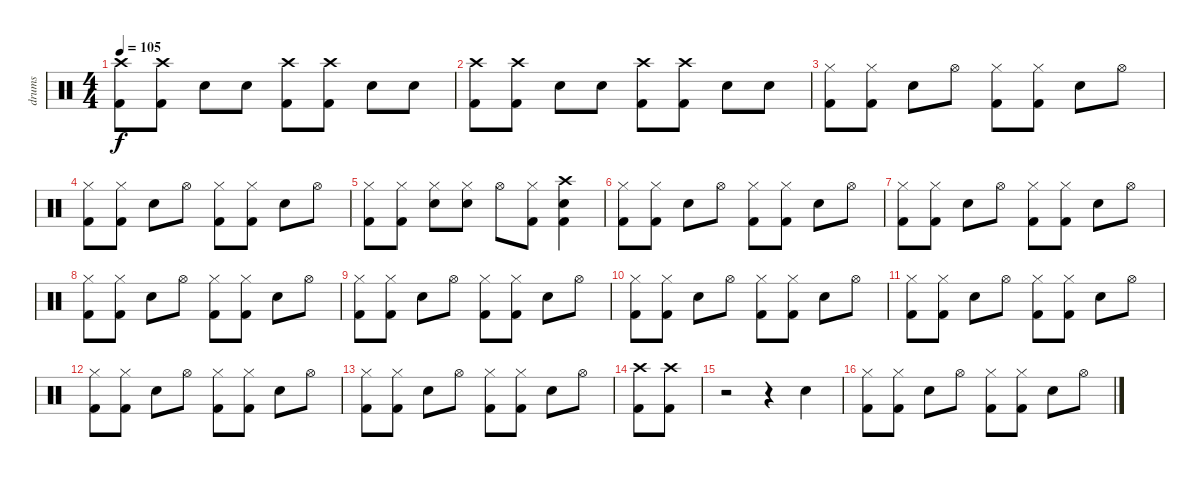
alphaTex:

\track ("drums" "drums") {instrument percussion}
\staff {score}
\articulation defaults
\ts (4 4)
\tempo 105
\clef neutral
\ks c
("Crash high (hit)" "Kick (hit) 2").8{dy f} ("Crash high (hit)" "Kick (hit) 2").8 "Snare (hit) 2".8 "Snare (hit) 2".8 ("Crash high (hit)" "Kick (hit) 2").8 ("Crash high (hit)" "Kick (hit) 2").8 "Snare (hit) 2".8 "Snare (hit) 2".8 |
("Crash high (hit)" "Kick (hit) 2").8 ("Crash high (hit)" "Kick (hit) 2").8 "Snare (hit) 2".8 "Snare (hit) 2".8 ("Crash high (hit)" "Kick (hit) 2").8 ("Crash high (hit)" "Kick (hit) 2").8 "Snare (hit) 2".8 "Snare (hit) 2".8 |
("Hi-Hat (closed)" "Kick (hit) 2").8 ("Hi-Hat (closed)" "Kick (hit) 2").8 "Snare (hit) 2".8 "Hi-Hat (open)".8 ("Hi-Hat (closed)" "Kick (hit) 2").8 ("Hi-Hat (closed)" "Kick (hit) 2").8 "Snare (hit) 2".8 "Hi-Hat (open)".8 |
("Hi-Hat (closed)" "Kick (hit) 2").8 ("Hi-Hat (closed)" "Kick (hit) 2").8 "Snare (hit) 2".8 "Hi-Hat (open)".8 ("Hi-Hat (closed)" "Kick (hit) 2").8 ("Hi-Hat (closed)" "Kick (hit) 2").8 "Snare (hit) 2".8 "Hi-Hat (open)".8 |
("Hi-Hat (closed)" "Kick (hit) 2").8 ("Hi-Hat (closed)" "Kick (hit) 2").8 ("Hi-Hat (closed)" "Snare (hit) 2").8 ("Hi-Hat (closed)" "Snare (hit) 2").8 "Hi-Hat (open)".8 ("Hi-Hat (closed)" "Kick (hit) 2").8 ("Crash high (hit)" "Snare (hit) 2" "Kick (hit) 2").4 |
("Hi-Hat (closed)" "Kick (hit) 2").8 ("Hi-Hat (closed)" "Kick (hit) 2").8 "Snare (hit) 2".8 "Hi-Hat (open)".8 ("Hi-Hat (closed)" "Kick (hit) 2").8 ("Hi-Hat (closed)" "Kick (hit) 2").8 "Snare (hit) 2".8 "Hi-Hat (open)".8 |
("Hi-Hat (closed)" "Kick (hit) 2").8 ("Hi-Hat (closed)" "Kick (hit) 2").8 "Snare (hit) 2".8 "Hi-Hat (open)".8 ("Hi-Hat (closed)" "Kick (hit) 2").8 ("Hi-Hat (closed)" "Kick (hit) 2").8 "Snare (hit) 2".8 "Hi-Hat (open)".8 |
("Hi-Hat (closed)" "Kick (hit) 2").8 ("Hi-Hat (closed)" "Kick (hit) 2").8 "Snare (hit) 2".8 "Hi-Hat (open)".8 ("Hi-Hat (closed)" "Kick (hit) 2").8 ("Hi-Hat (closed)" "Kick (hit) 2").8 "Snare (hit) 2".8 "Hi-Hat (open)".8 |
("Hi-Hat (closed)" "Kick (hit) 2").8 ("Hi-Hat (closed)" "Kick (hit) 2").8 "Snare (hit) 2".8 "Hi-Hat (open)".8 ("Hi-Hat (closed)" "Kick (hit) 2").8 ("Hi-Hat (closed)" "Kick (hit) 2").8 "Snare (hit) 2".8 "Hi-Hat (open)".8 |
("Hi-Hat (closed)" "Kick (hit) 2").8 ("Hi-Hat (closed)" "Kick (hit) 2").8 "Snare (hit) 2".8 "Hi-Hat (open)".8 ("Hi-Hat (closed)" "Kick (hit) 2").8 ("Hi-Hat (closed)" "Kick (hit) 2").8 "Snare (hit) 2".8 "Hi-Hat (open)".8 |
("Hi-Hat (closed)" "Kick (hit) 2").8 ("Hi-Hat (closed)" "Kick (hit) 2").8 "Snare (hit) 2".8 "Hi-Hat (open)".8 ("Hi-Hat (closed)" "Kick (hit) 2").8 ("Hi-Hat (closed)" "Kick (hit) 2").8 "Snare (hit) 2".8 "Hi-Hat (open)".8 |
("Hi-Hat (closed)" "Kick (hit) 2").8 ("Hi-Hat (closed)" "Kick (hit) 2").8 "Snare (hit) 2".8 "Hi-Hat (open)".8 ("Hi-Hat (closed)" "Kick (hit) 2").8 ("Hi-Hat (closed)" "Kick (hit) 2").8 "Snare (hit) 2".8 "Hi-Hat (open)".8 |
("Hi-Hat (closed)" "Kick (hit) 2").8 ("Hi-Hat (closed)" "Kick (hit) 2").8 "Snare (hit) 2".8 "Hi-Hat (open)".8 ("Hi-Hat (closed)" "Kick (hit) 2").8 ("Hi-Hat (closed)" "Kick (hit) 2").8 "Snare (hit) 2".8 "Hi-Hat (open)".8 |
("Crash high (hit)" "Kick (hit) 2").8 ("Crash high (hit)" "Kick (hit) 2").8 |
r.2 r.4 "Snare (hit) 2".4 |
("Hi-Hat (closed)" "Kick (hit) 2").8 ("Hi-Hat (closed)" "Kick (hit) 2").8 "Snare (hit) 2".8 "Hi-Hat (open)".8 ("Hi-Hat (closed)" "Kick (hit) 2").8 ("Hi-Hat (closed)" "Kick (hit) 2").8 "Snare (hit) 2".8 "Hi-Hat (open)".8
